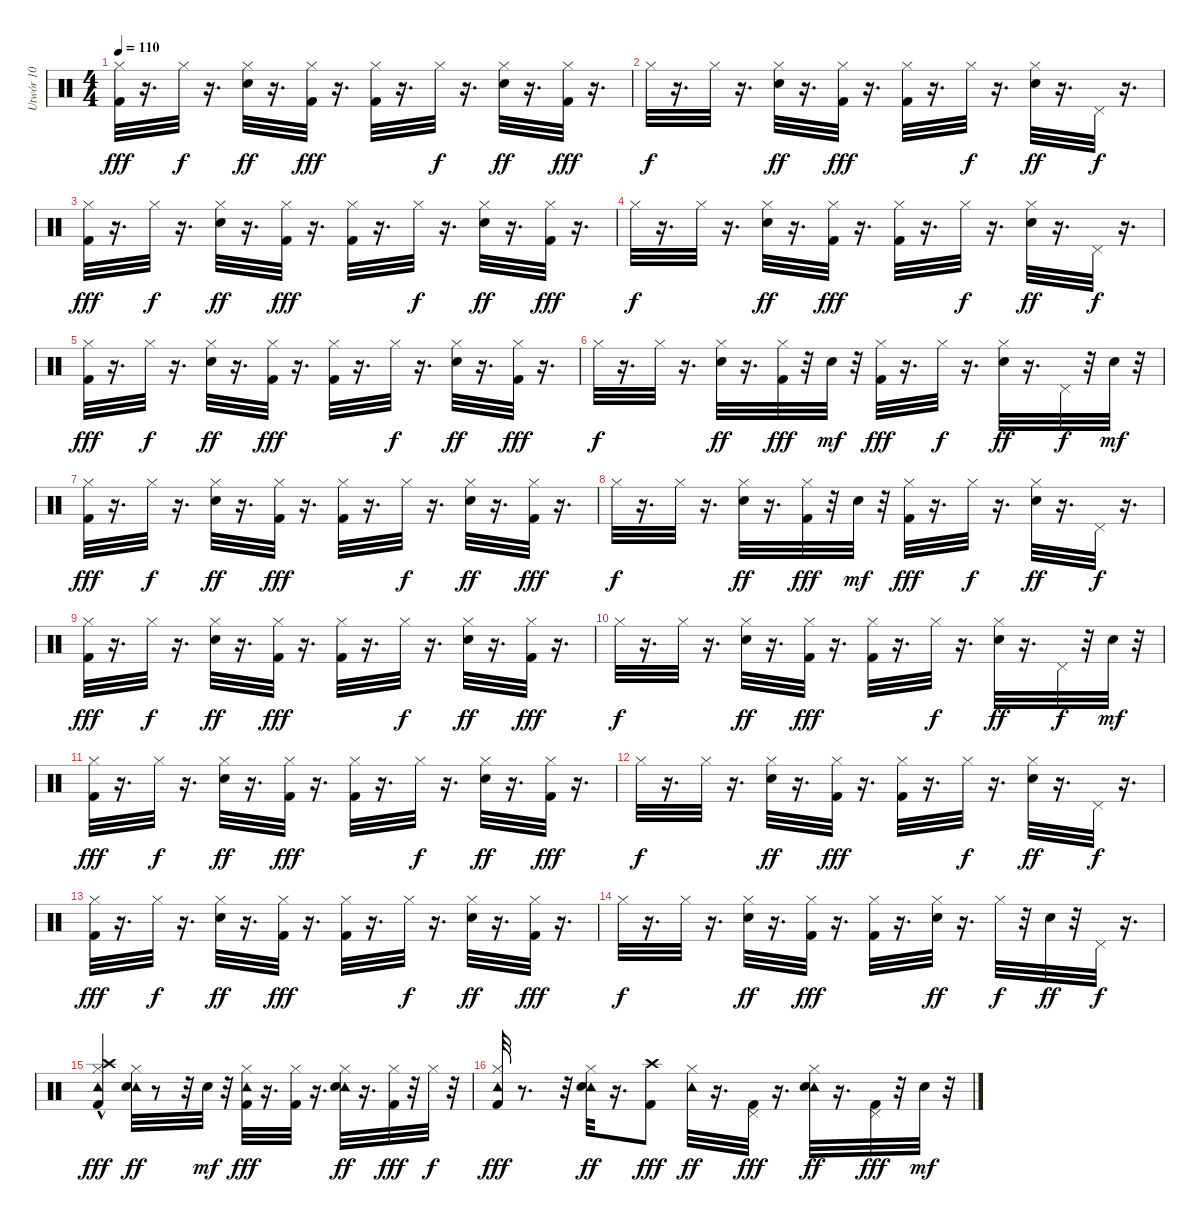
\track ("Utwór 10" "Utwór 10") {instrument percussion}
\staff {score}
\articulation defaults
\ts (4 4)
\tempo 110
\clef neutral
\ks c
("Kick (hit) 2" "Hi-Hat (closed)").32{dy fff} r.16{d} "Hi-Hat (closed)".32{dy f} r.16{d} ("Snare (hit) 2" "Hi-Hat (closed)").32{dy ff} r.16{d} ("Kick (hit) 2" "Hi-Hat (closed)").32{dy fff} r.16{d} ("Kick (hit) 2" "Hi-Hat (closed)").32 r.16{d} "Hi-Hat (closed)".32{dy f} r.16{d} ("Snare (hit) 2" "Hi-Hat (closed)").32{dy ff} r.16{d} ("Kick (hit) 2" "Hi-Hat (closed)").32{dy fff} r.16{d} |
"Hi-Hat (closed)".32{dy f} r.16{d} "Hi-Hat (closed)".32 r.16{d} ("Snare (hit) 2" "Hi-Hat (closed)").32{dy ff} r.16{d} ("Kick (hit) 2" "Hi-Hat (closed)").32{dy fff} r.16{d} ("Kick (hit) 2" "Hi-Hat (closed)").32 r.16{d} "Hi-Hat (closed)".32{dy f} r.16{d} ("Snare (hit) 2" "Hi-Hat (closed)").32{dy ff} r.16{d} "Pedal Hi-Hat (hit)".32{dy f} r.16{d} |
("Kick (hit) 2" "Hi-Hat (closed)").32{dy fff} r.16{d} "Hi-Hat (closed)".32{dy f} r.16{d} ("Snare (hit) 2" "Hi-Hat (closed)").32{dy ff} r.16{d} ("Kick (hit) 2" "Hi-Hat (closed)").32{dy fff} r.16{d} ("Kick (hit) 2" "Hi-Hat (closed)").32 r.16{d} "Hi-Hat (closed)".32{dy f} r.16{d} ("Snare (hit) 2" "Hi-Hat (closed)").32{dy ff} r.16{d} ("Kick (hit) 2" "Hi-Hat (closed)").32{dy fff} r.16{d} |
"Hi-Hat (closed)".32{dy f} r.16{d} "Hi-Hat (closed)".32 r.16{d} ("Snare (hit) 2" "Hi-Hat (closed)").32{dy ff} r.16{d} ("Kick (hit) 2" "Hi-Hat (closed)").32{dy fff} r.16{d} ("Kick (hit) 2" "Hi-Hat (closed)").32 r.16{d} "Hi-Hat (closed)".32{dy f} r.16{d} ("Snare (hit) 2" "Hi-Hat (closed)").32{dy ff} r.16{d} "Pedal Hi-Hat (hit)".32{dy f} r.16{d} |
("Kick (hit) 2" "Hi-Hat (closed)").32{dy fff} r.16{d} "Hi-Hat (closed)".32{dy f} r.16{d} ("Snare (hit) 2" "Hi-Hat (closed)").32{dy ff} r.16{d} ("Kick (hit) 2" "Hi-Hat (closed)").32{dy fff} r.16{d} ("Kick (hit) 2" "Hi-Hat (closed)").32 r.16{d} "Hi-Hat (closed)".32{dy f} r.16{d} ("Snare (hit) 2" "Hi-Hat (closed)").32{dy ff} r.16{d} ("Kick (hit) 2" "Hi-Hat (closed)").32{dy fff} r.16{d} |
"Hi-Hat (closed)".32{dy f} r.16{d} "Hi-Hat (closed)".32 r.16{d} ("Snare (hit) 2" "Hi-Hat (closed)").32{dy ff} r.16{d} ("Kick (hit) 2" "Hi-Hat (closed)").32{dy fff} r.32 "Snare (hit) 2".32{dy mf} r.32 ("Kick (hit) 2" "Hi-Hat (closed)").32{dy fff} r.16{d} "Hi-Hat (closed)".32{dy f} r.16{d} ("Snare (hit) 2" "Hi-Hat (closed)").32{dy ff} r.16{d} "Pedal Hi-Hat (hit)".32{dy f} r.32 "Snare (hit) 2".32{dy mf} r.32 |
("Kick (hit) 2" "Hi-Hat (closed)").32{dy fff} r.16{d} "Hi-Hat (closed)".32{dy f} r.16{d} ("Snare (hit) 2" "Hi-Hat (closed)").32{dy ff} r.16{d} ("Kick (hit) 2" "Hi-Hat (closed)").32{dy fff} r.16{d} ("Kick (hit) 2" "Hi-Hat (closed)").32 r.16{d} "Hi-Hat (closed)".32{dy f} r.16{d} ("Snare (hit) 2" "Hi-Hat (closed)").32{dy ff} r.16{d} ("Kick (hit) 2" "Hi-Hat (closed)").32{dy fff} r.16{d} |
"Hi-Hat (closed)".32{dy f} r.16{d} "Hi-Hat (closed)".32 r.16{d} ("Snare (hit) 2" "Hi-Hat (closed)").32{dy ff} r.16{d} ("Kick (hit) 2" "Hi-Hat (closed)").32{dy fff} r.32 "Snare (hit) 2".32{dy mf} r.32 ("Kick (hit) 2" "Hi-Hat (closed)").32{dy fff} r.16{d} "Hi-Hat (closed)".32{dy f} r.16{d} ("Snare (hit) 2" "Hi-Hat (closed)").32{dy ff} r.16{d} "Pedal Hi-Hat (hit)".32{dy f} r.16{d} |
("Kick (hit) 2" "Hi-Hat (closed)").32{dy fff} r.16{d} "Hi-Hat (closed)".32{dy f} r.16{d} ("Snare (hit) 2" "Hi-Hat (closed)").32{dy ff} r.16{d} ("Kick (hit) 2" "Hi-Hat (closed)").32{dy fff} r.16{d} ("Kick (hit) 2" "Hi-Hat (closed)").32 r.16{d} "Hi-Hat (closed)".32{dy f} r.16{d} ("Snare (hit) 2" "Hi-Hat (closed)").32{dy ff} r.16{d} ("Kick (hit) 2" "Hi-Hat (closed)").32{dy fff} r.16{d} |
"Hi-Hat (closed)".32{dy f} r.16{d} "Hi-Hat (closed)".32 r.16{d} ("Snare (hit) 2" "Hi-Hat (closed)").32{dy ff} r.16{d} ("Kick (hit) 2" "Hi-Hat (closed)").32{dy fff} r.16{d} ("Kick (hit) 2" "Hi-Hat (closed)").32 r.16{d} "Hi-Hat (closed)".32{dy f} r.16{d} ("Snare (hit) 2" "Hi-Hat (closed)").32{dy ff} r.16{d} "Pedal Hi-Hat (hit)".32{dy f} r.32 "Snare (hit) 2".32{dy mf} r.32 |
("Kick (hit) 2" "Hi-Hat (closed)").32{dy fff} r.16{d} "Hi-Hat (closed)".32{dy f} r.16{d} ("Snare (hit) 2" "Hi-Hat (closed)").32{dy ff} r.16{d} ("Kick (hit) 2" "Hi-Hat (closed)").32{dy fff} r.16{d} ("Kick (hit) 2" "Hi-Hat (closed)").32 r.16{d} "Hi-Hat (closed)".32{dy f} r.16{d} ("Snare (hit) 2" "Hi-Hat (closed)").32{dy ff} r.16{d} ("Kick (hit) 2" "Hi-Hat (closed)").32{dy fff} r.16{d} |
"Hi-Hat (closed)".32{dy f} r.16{d} "Hi-Hat (closed)".32 r.16{d} ("Snare (hit) 2" "Hi-Hat (closed)").32{dy ff} r.16{d} ("Kick (hit) 2" "Hi-Hat (closed)").32{dy fff} r.16{d} ("Kick (hit) 2" "Hi-Hat (closed)").32 r.16{d} "Hi-Hat (closed)".32{dy f} r.16{d} ("Snare (hit) 2" "Hi-Hat (closed)").32{dy ff} r.16{d} "Pedal Hi-Hat (hit)".32{dy f} r.16{d} |
("Kick (hit) 2" "Hi-Hat (closed)").32{dy fff} r.16{d} "Hi-Hat (closed)".32{dy f} r.16{d} ("Snare (hit) 2" "Hi-Hat (closed)").32{dy ff} r.16{d} ("Kick (hit) 2" "Hi-Hat (closed)").32{dy fff} r.16{d} ("Kick (hit) 2" "Hi-Hat (closed)").32 r.16{d} "Hi-Hat (closed)".32{dy f} r.16{d} ("Snare (hit) 2" "Hi-Hat (closed)").32{dy ff} r.16{d} ("Kick (hit) 2" "Hi-Hat (closed)").32{dy fff} r.16{d} |
"Hi-Hat (closed)".32{dy f} r.16{d} "Hi-Hat (closed)".32 r.16{d} ("Snare (hit) 2" "Hi-Hat (closed)").32{dy ff} r.16{d} ("Kick (hit) 2" "Hi-Hat (closed)").32{dy fff} r.16{d} ("Kick (hit) 2" "Hi-Hat (closed)").32 r.16{d} ("Snare (hit) 2" "Hi-Hat (closed)").32{dy ff} r.16{d} "Hi-Hat (closed)".32{dy f} r.32 "Snare (hit) 2".32{dy ff} r.32 "Pedal Hi-Hat (hit)".32{dy f} r.16{d} |
("Crash high (hit)"{hac} "Tambourine (hit)" "Kick (hit) 2" "Hi-Hat (closed)").4{dy fff} ("Tambourine (hit)" "Snare (hit) 2" "Hi-Hat (closed)").32{dy ff} r.8 r.32 "Snare (hit) 2".32{dy mf} r.32 ("Tambourine (hit)" "Kick (hit) 2" "Hi-Hat (closed)").32{dy fff} r.16{d} ("Kick (hit) 2" "Hi-Hat (closed)").32 r.16{d} ("Tambourine (hit)" "Snare (hit) 2" "Hi-Hat (closed)").32{dy ff} r.16{d} ("Kick (hit) 2" "Hi-Hat (closed)").32{dy fff} r.32 "Hi-Hat (closed)".32{dy f} r.32 |
("Tambourine (hit)" "Kick (hit) 2" "Hi-Hat (closed)").32{dy fff} r.8{d} r.32 ("Tambourine (hit)" "Snare (hit) 2" "Hi-Hat (closed)").32{dy ff} r.16{d} ("Kick (hit) 2" "Crash high (hit)").8{dy fff} ("Tambourine (hit)" "Hi-Hat (closed)").32{dy ff} r.16{d} ("Kick (hit) 2" "Pedal Hi-Hat (hit)").32{dy fff} r.16{d} ("Tambourine (hit)" "Snare (hit) 2" "Hi-Hat (closed)").32{dy ff} r.16{d} ("Kick (hit) 2" "Pedal Hi-Hat (hit)").32{dy fff} r.32 "Snare (hit) 2".32{dy mf} r.32
